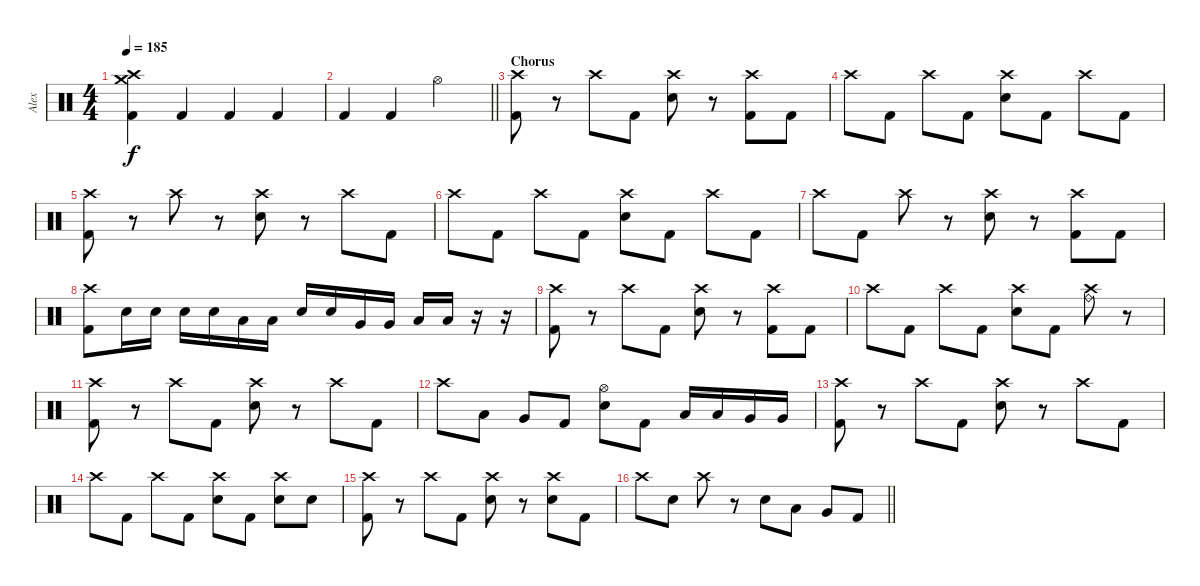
\track ("Alex" "Alex") {instrument percussion}
\staff {score}
\articulation defaults
\ts (4 4)
\tempo 185
\clef neutral
\ks c
("Crash high (hit)" "Crash medium (hit)" "Kick (hit) 2").4{dy f} "Kick (hit) 2".4 "Kick (hit) 2".4 "Kick (hit) 2".4 |
\barLineRight lightlight "Kick (hit) 2".4 "Kick (hit) 2".4 "Hi-Hat (open)".2
|
\section ("" "Chorus")
("Crash high (hit)" "Kick (hit) 2").8 r.8 "Crash high (hit)".8 "Kick (hit) 2".8 ("Crash high (hit)" "Electric Snare (hit)").8 r.8 ("Crash high (hit)" "Kick (hit) 2").8 "Kick (hit) 2".8 |
"Crash high (hit)".8 "Kick (hit) 2".8 "Crash high (hit)".8 "Kick (hit) 2".8 ("Crash high (hit)" "Electric Snare (hit)").8 "Kick (hit) 2".8 "Crash high (hit)".8 "Kick (hit) 2".8 |
("Crash high (hit)" "Kick (hit) 2").8 r.8 "Crash high (hit)".8 r.8 ("Crash high (hit)" "Electric Snare (hit)").8 r.8 "Crash high (hit)".8 "Kick (hit) 2".8 |
"Crash high (hit)".8 "Kick (hit) 2".8 "Crash high (hit)".8 "Kick (hit) 2".8 ("Crash high (hit)" "Electric Snare (hit)").8 "Kick (hit) 2".8 "Crash high (hit)".8 "Kick (hit) 2".8 |
"Crash high (hit)".8 "Kick (hit) 2".8 "Crash high (hit)".8 r.8 ("Crash high (hit)" "Electric Snare (hit)").8 r.8 ("Crash high (hit)" "Kick (hit) 2").8 "Kick (hit) 2".8 |
("Crash high (hit)" "Kick (hit) 2").8 "Electric Snare (hit)".16 "Electric Snare (hit)".16 "Electric Snare (hit)".16 "Electric Snare (hit)".16 "Low Tom (hit)".16 "Low Tom (hit)".16 "Electric Snare (hit)".16 "Electric Snare (hit)".16 "Very Low Tom (hit)".16 "Very Low Tom (hit)".16 "Low Floor Tom (hit)".16 "Low Floor Tom (hit)".16 r.16 r.16 |
("Crash high (hit)" "Kick (hit) 2").8 r.8 "Crash high (hit)".8 "Kick (hit) 2".8 ("Crash high (hit)" "Electric Snare (hit)").8 r.8 ("Crash high (hit)" "Kick (hit) 2").8 "Kick (hit) 2".8 |
"Crash high (hit)".8 "Kick (hit) 2".8 "Crash high (hit)".8 "Kick (hit) 2".8 ("Crash high (hit)" "Electric Snare (hit)").8 "Kick (hit) 2".8 ("Crash high (hit)" "Ride (bell)").8 r.8 |
("Crash high (hit)" "Kick (hit) 2").8 r.8 "Crash high (hit)".8 "Kick (hit) 2".8 ("Crash high (hit)" "Electric Snare (hit)").8 r.8 "Crash high (hit)".8 "Kick (hit) 2".8 |
"Crash high (hit)".8 "Low Tom (hit)".8 "Very Low Tom (hit)".8 "Kick (hit) 2".8 ("Hi-Hat (open)" "Electric Snare (hit)").8 "Kick (hit) 2".8 "Low Tom (hit)".16 "Low Tom (hit)".16 "Very Low Tom (hit)".16 "Very Low Tom (hit)".16 |
("Crash high (hit)" "Kick (hit) 2").8 r.8 "Crash high (hit)".8 "Kick (hit) 2".8 ("Crash high (hit)" "Electric Snare (hit)").8 r.8 "Crash high (hit)".8 "Kick (hit) 2".8 |
"Crash high (hit)".8 "Kick (hit) 2".8 "Crash high (hit)".8 "Kick (hit) 2".8 ("Crash high (hit)" "Electric Snare (hit)").8 "Kick (hit) 2".8 ("Crash high (hit)" "Electric Snare (hit)").8 "Electric Snare (hit)".8 |
("Crash high (hit)" "Kick (hit) 2").8 r.8 "Crash high (hit)".8 "Kick (hit) 2".8 ("Crash high (hit)" "Electric Snare (hit)").8 r.8 ("Crash high (hit)" "Electric Snare (hit)").8 "Kick (hit) 2".8 |
\barLineRight lightlight "Crash high (hit)".8 "Electric Snare (hit)".8 "Crash high (hit)".8
r.8 "Electric Snare (hit)".8 "Low Tom (hit)".8 "Very Low Tom (hit)".8 "Kick (hit) 2".8
